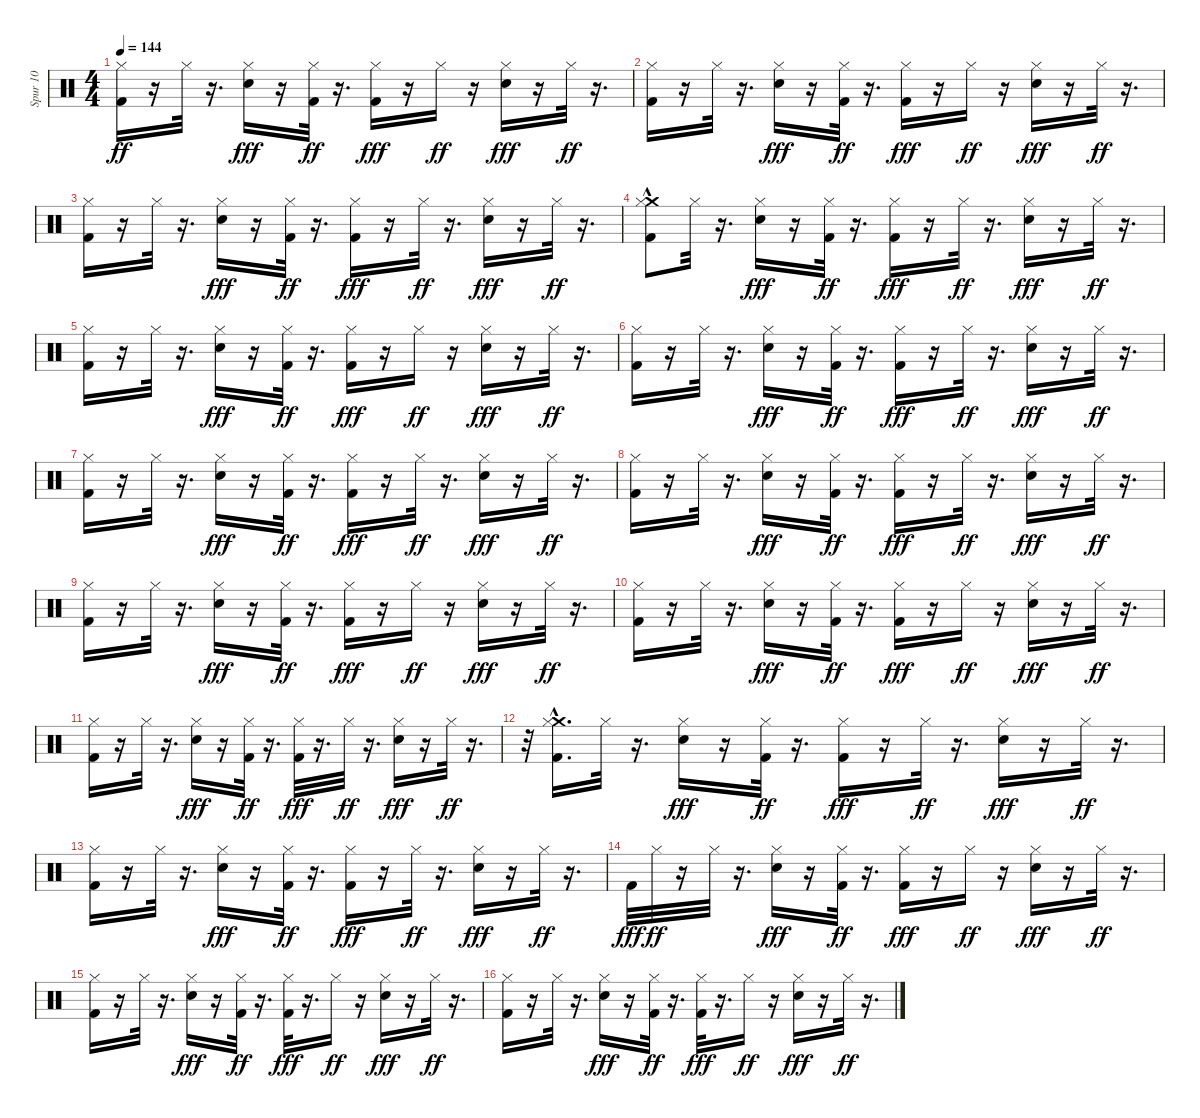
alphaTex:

\track ("Spur 10" "Spur 10") {instrument percussion}
\staff {score}
\articulation defaults
\ts (4 4)
\tempo 144
\clef neutral
\ks c
("Kick (hit) 2" "Hi-Hat (closed)").16{dy ff} r.16 "Hi-Hat (closed)".32 r.16{d} ("Snare (hit) 2" "Hi-Hat (closed)").16{dy fff} r.16 ("Kick (hit) 2" "Hi-Hat (closed)").32{dy ff} r.16{d} ("Kick (hit) 2" "Hi-Hat (closed)").16{dy fff} r.16 "Hi-Hat (closed)".16{dy ff} r.16 ("Snare (hit) 2" "Hi-Hat (closed)").16{dy fff} r.16 "Hi-Hat (closed)".32{dy ff} r.16{d} |
("Kick (hit) 2" "Hi-Hat (closed)").16 r.16 "Hi-Hat (closed)".32 r.16{d} ("Snare (hit) 2" "Hi-Hat (closed)").16{dy fff} r.16 ("Kick (hit) 2" "Hi-Hat (closed)").32{dy ff} r.16{d} ("Kick (hit) 2" "Hi-Hat (closed)").16{dy fff} r.16 "Hi-Hat (closed)".16{dy ff} r.16 ("Snare (hit) 2" "Hi-Hat (closed)").16{dy fff} r.16 "Hi-Hat (closed)".32{dy ff} r.16{d} |
("Kick (hit) 2" "Hi-Hat (closed)").16 r.16 "Hi-Hat (closed)".32 r.16{d} ("Snare (hit) 2" "Hi-Hat (closed)").16{dy fff} r.16 ("Kick (hit) 2" "Hi-Hat (closed)").32{dy ff} r.16{d} ("Kick (hit) 2" "Hi-Hat (closed)").16{dy fff} r.16 "Hi-Hat (closed)".32{dy ff} r.16{d} ("Snare (hit) 2" "Hi-Hat (closed)").16{dy fff} r.16 "Hi-Hat (closed)".32{dy ff} r.16{d} |
("Crash medium (hit)"{hac} "Kick (hit) 2" "Hi-Hat (closed)").8 "Hi-Hat (closed)".32 r.16{d} ("Snare (hit) 2" "Hi-Hat (closed)").16{dy fff} r.16 ("Kick (hit) 2" "Hi-Hat (closed)").32{dy ff} r.16{d} ("Kick (hit) 2" "Hi-Hat (closed)").16{dy fff} r.16 "Hi-Hat (closed)".32{dy ff} r.16{d} ("Snare (hit) 2" "Hi-Hat (closed)").16{dy fff} r.16 "Hi-Hat (closed)".32{dy ff} r.16{d} |
("Kick (hit) 2" "Hi-Hat (closed)").16 r.16 "Hi-Hat (closed)".32 r.16{d} ("Snare (hit) 2" "Hi-Hat (closed)").16{dy fff} r.16 ("Kick (hit) 2" "Hi-Hat (closed)").32{dy ff} r.16{d} ("Kick (hit) 2" "Hi-Hat (closed)").16{dy fff} r.16 "Hi-Hat (closed)".16{dy ff} r.16 ("Snare (hit) 2" "Hi-Hat (closed)").16{dy fff} r.16 "Hi-Hat (closed)".32{dy ff} r.16{d} |
("Kick (hit) 2" "Hi-Hat (closed)").16 r.16 "Hi-Hat (closed)".32 r.16{d} ("Snare (hit) 2" "Hi-Hat (closed)").16{dy fff} r.16 ("Kick (hit) 2" "Hi-Hat (closed)").32{dy ff} r.16{d} ("Kick (hit) 2" "Hi-Hat (closed)").16{dy fff} r.16 "Hi-Hat (closed)".32{dy ff} r.16{d} ("Snare (hit) 2" "Hi-Hat (closed)").16{dy fff} r.16 "Hi-Hat (closed)".32{dy ff} r.16{d} |
("Kick (hit) 2" "Hi-Hat (closed)").16 r.16 "Hi-Hat (closed)".32 r.16{d} ("Snare (hit) 2" "Hi-Hat (closed)").16{dy fff} r.16 ("Kick (hit) 2" "Hi-Hat (closed)").32{dy ff} r.16{d} ("Kick (hit) 2" "Hi-Hat (closed)").16{dy fff} r.16 "Hi-Hat (closed)".32{dy ff} r.16{d} ("Snare (hit) 2" "Hi-Hat (closed)").16{dy fff} r.16 "Hi-Hat (closed)".32{dy ff} r.16{d} |
("Kick (hit) 2" "Hi-Hat (closed)").16 r.16 "Hi-Hat (closed)".32 r.16{d} ("Snare (hit) 2" "Hi-Hat (closed)").16{dy fff} r.16 ("Kick (hit) 2" "Hi-Hat (closed)").32{dy ff} r.16{d} ("Kick (hit) 2" "Hi-Hat (closed)").16{dy fff} r.16 "Hi-Hat (closed)".32{dy ff} r.16{d} ("Snare (hit) 2" "Hi-Hat (closed)").16{dy fff} r.16 "Hi-Hat (closed)".32{dy ff} r.16{d} |
("Kick (hit) 2" "Hi-Hat (closed)").16 r.16 "Hi-Hat (closed)".32 r.16{d} ("Snare (hit) 2" "Hi-Hat (closed)").16{dy fff} r.16 ("Kick (hit) 2" "Hi-Hat (closed)").32{dy ff} r.16{d} ("Kick (hit) 2" "Hi-Hat (closed)").16{dy fff} r.16 "Hi-Hat (closed)".16{dy ff} r.16 ("Snare (hit) 2" "Hi-Hat (closed)").16{dy fff} r.16 "Hi-Hat (closed)".32{dy ff} r.16{d} |
("Kick (hit) 2" "Hi-Hat (closed)").16 r.16 "Hi-Hat (closed)".32 r.16{d} ("Snare (hit) 2" "Hi-Hat (closed)").16{dy fff} r.16 ("Kick (hit) 2" "Hi-Hat (closed)").32{dy ff} r.16{d} ("Kick (hit) 2" "Hi-Hat (closed)").16{dy fff} r.16 "Hi-Hat (closed)".16{dy ff} r.16 ("Snare (hit) 2" "Hi-Hat (closed)").16{dy fff} r.16 "Hi-Hat (closed)".32{dy ff} r.16{d} |
("Kick (hit) 2" "Hi-Hat (closed)").16 r.16 "Hi-Hat (closed)".32 r.16{d} ("Snare (hit) 2" "Hi-Hat (closed)").16{dy fff} r.16 ("Kick (hit) 2" "Hi-Hat (closed)").32{dy ff} r.16{d} ("Kick (hit) 2" "Hi-Hat (closed)").32{dy fff} r.16{d} "Hi-Hat (closed)".32{dy ff} r.16{d} ("Snare (hit) 2" "Hi-Hat (closed)").16{dy fff} r.16 "Hi-Hat (closed)".32{dy ff} r.16{d} |
r.32 ("Crash medium (hit)"{hac} "Kick (hit) 2" "Hi-Hat (closed)").16{d} "Hi-Hat (closed)".32 r.16{d} ("Snare (hit) 2" "Hi-Hat (closed)").16{dy fff} r.16 ("Kick (hit) 2" "Hi-Hat (closed)").32{dy ff} r.16{d} ("Kick (hit) 2" "Hi-Hat (closed)").16{dy fff} r.16 "Hi-Hat (closed)".32{dy ff} r.16{d} ("Snare (hit) 2" "Hi-Hat (closed)").16{dy fff} r.16 "Hi-Hat (closed)".32{dy ff} r.16{d} |
("Kick (hit) 2" "Hi-Hat (closed)").16 r.16 "Hi-Hat (closed)".32 r.16{d} ("Snare (hit) 2" "Hi-Hat (closed)").16{dy fff} r.16 ("Kick (hit) 2" "Hi-Hat (closed)").32{dy ff} r.16{d} ("Kick (hit) 2" "Hi-Hat (closed)").16{dy fff} r.16 "Hi-Hat (closed)".32{dy ff} r.16{d} ("Snare (hit) 2" "Hi-Hat (closed)").16{dy fff} r.16 "Hi-Hat (closed)".32{dy ff} r.16{d} |
"Kick (hit) 2".32{dy fff} "Hi-Hat (closed)".32{dy ff} r.16 "Hi-Hat (closed)".32 r.16{d} ("Snare (hit) 2" "Hi-Hat (closed)").16{dy fff} r.16 ("Kick (hit) 2" "Hi-Hat (closed)").32{dy ff} r.16{d} ("Kick (hit) 2" "Hi-Hat (closed)").16{dy fff} r.16 "Hi-Hat (closed)".16{dy ff} r.16 ("Snare (hit) 2" "Hi-Hat (closed)").16{dy fff} r.16 "Hi-Hat (closed)".32{dy ff} r.16{d} |
("Kick (hit) 2" "Hi-Hat (closed)").16 r.16 "Hi-Hat (closed)".32 r.16{d} ("Snare (hit) 2" "Hi-Hat (closed)").16{dy fff} r.16 ("Kick (hit) 2" "Hi-Hat (closed)").32{dy ff} r.16{d} ("Kick (hit) 2" "Hi-Hat (closed)").32{dy fff} r.16{d} "Hi-Hat (closed)".16{dy ff} r.16 ("Snare (hit) 2" "Hi-Hat (closed)").16{dy fff} r.16 "Hi-Hat (closed)".32{dy ff} r.16{d} |
("Kick (hit) 2" "Hi-Hat (closed)").16 r.16 "Hi-Hat (closed)".32 r.16{d} ("Snare (hit) 2" "Hi-Hat (closed)").16{dy fff} r.16 ("Kick (hit) 2" "Hi-Hat (closed)").32{dy ff} r.16{d} ("Kick (hit) 2" "Hi-Hat (closed)").32{dy fff} r.16{d} "Hi-Hat (closed)".16{dy ff} r.16 ("Snare (hit) 2" "Hi-Hat (closed)").16{dy fff} r.16 "Hi-Hat (closed)".32{dy ff} r.16{d}
